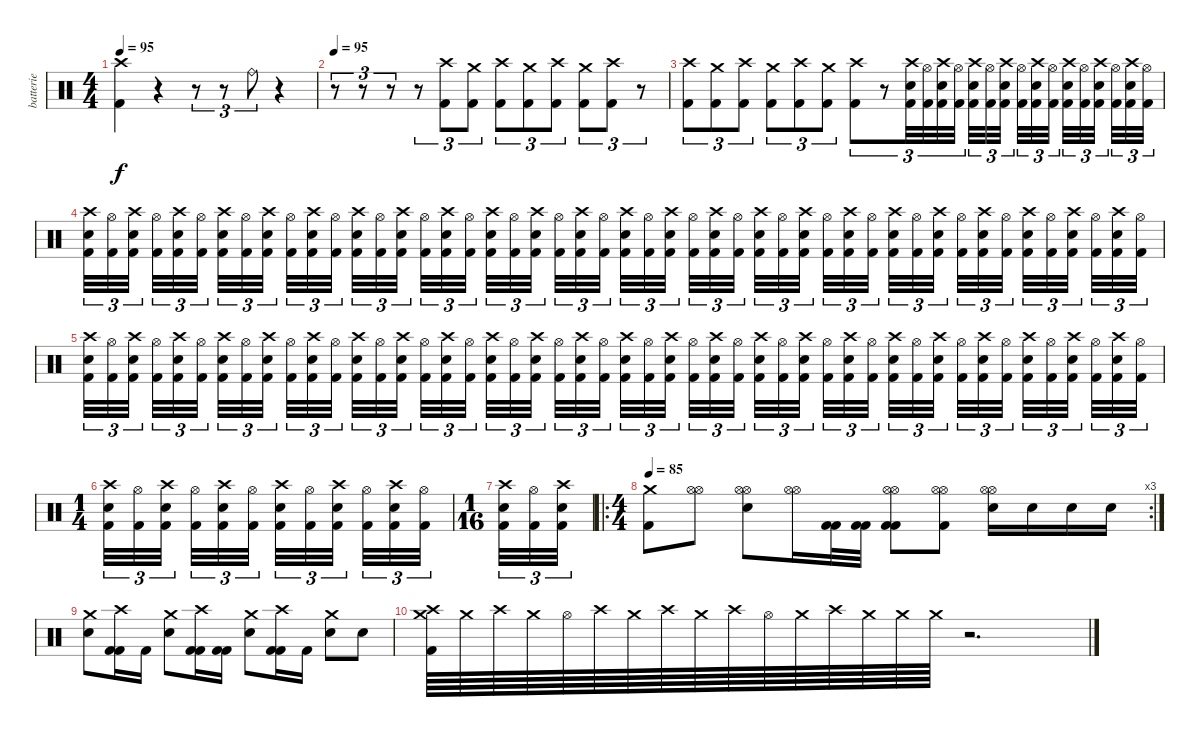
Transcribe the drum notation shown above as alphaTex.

\track ("batterie" "batterie") {instrument percussion}
\staff {score}
\articulation defaults
\ts (4 4)
\tempo 95
\clef neutral
\ks c
("Crash high (hit)" "Kick (hit) 2").4{dy f} r.4 r.8{tu (3 2)} r.8{tu (3 2)} "Ride (bell)".8{tu (3 2)} r.4 |
\tempo 95
r.8{tu (3 2)} r.8{tu (3 2)} r.8{tu (3 2)} r.8{tu (3 2)} ("Crash high (hit)" "Kick (hit) 2").8{tu (3 2)} ("Crash medium (hit)" "Kick (hit) 2").8{tu (3 2)} ("Crash high (hit)" "Kick (hit) 2").8{tu (3 2)} ("Crash medium (hit)" "Kick (hit) 2").8{tu (3 2)} ("Crash high (hit)" "Kick (hit) 2").8{tu (3 2)} ("Crash medium (hit)" "Kick (hit) 2").8{tu (3 2)} ("Crash high (hit)" "Kick (hit) 2").8{tu (3 2)} r.8{tu (3 2)} |
("Crash high (hit)" "Kick (hit) 2").8{tu (3 2)} ("Crash medium (hit)" "Kick (hit) 2").8{tu (3 2)} ("Crash high (hit)" "Kick (hit) 2").8{tu (3 2)} ("Crash medium (hit)" "Kick (hit) 2").8{tu (3 2)} ("Crash high (hit)" "Kick (hit) 2").8{tu (3 2)} ("Crash medium (hit)" "Kick (hit) 2").8{tu (3 2)} ("Crash high (hit)" "Kick (hit) 2").8{tu (3 2)} r.8{tu (3 2)} ("Crash high (hit)" "Electric Snare (hit)" "Kick (hit) 2").32{tu (3 2)} ("Hi-Hat (open)" "Kick (hit) 2").32{tu (3 2)} ("Crash high (hit)" "Electric Snare (hit)" "Kick (hit) 2").32{tu (3 2)} ("Hi-Hat (open)" "Kick (hit) 2").32{tu (3 2)} ("Crash high (hit)" "Electric Snare (hit)" "Kick (hit) 2").32{tu (3 2)} ("Hi-Hat (open)" "Kick (hit) 2").32{tu (3 2)} ("Crash high (hit)" "Electric Snare (hit)" "Kick (hit) 2").32{tu (3 2)} ("Hi-Hat (open)" "Kick (hit) 2").32{tu (3 2)} ("Crash high (hit)" "Electric Snare (hit)" "Kick (hit) 2").32{tu (3 2)} ("Hi-Hat (open)" "Kick (hit) 2").32{tu (3 2)} ("Crash high (hit)" "Electric Snare (hit)" "Kick (hit) 2").32{tu (3 2)} ("Hi-Hat (open)" "Kick (hit) 2").32{tu (3 2)} ("Crash high (hit)" "Electric Snare (hit)" "Kick (hit) 2").32{tu (3 2)} ("Hi-Hat (open)" "Kick (hit) 2").32{tu (3 2)} ("Crash high (hit)" "Electric Snare (hit)" "Kick (hit) 2").32{tu (3 2)} ("Hi-Hat (open)" "Kick (hit) 2").32{tu (3 2)} |
("Crash high (hit)" "Electric Snare (hit)" "Kick (hit) 2").32{tu (3 2)} ("Hi-Hat (open)" "Kick (hit) 2").32{tu (3 2)} ("Crash high (hit)" "Electric Snare (hit)" "Kick (hit) 2").32{tu (3 2)} ("Hi-Hat (open)" "Kick (hit) 2").32{tu (3 2)} ("Crash high (hit)" "Electric Snare (hit)" "Kick (hit) 2").32{tu (3 2)} ("Hi-Hat (open)" "Kick (hit) 2").32{tu (3 2)} ("Crash high (hit)" "Electric Snare (hit)" "Kick (hit) 2").32{tu (3 2)} ("Hi-Hat (open)" "Kick (hit) 2").32{tu (3 2)} ("Crash high (hit)" "Electric Snare (hit)" "Kick (hit) 2").32{tu (3 2)} ("Hi-Hat (open)" "Kick (hit) 2").32{tu (3 2)} ("Crash high (hit)" "Electric Snare (hit)" "Kick (hit) 2").32{tu (3 2)} ("Hi-Hat (open)" "Kick (hit) 2").32{tu (3 2)} ("Crash high (hit)" "Electric Snare (hit)" "Kick (hit) 2").32{tu (3 2)} ("Hi-Hat (open)" "Kick (hit) 2").32{tu (3 2)} ("Crash high (hit)" "Electric Snare (hit)" "Kick (hit) 2").32{tu (3 2)} ("Hi-Hat (open)" "Kick (hit) 2").32{tu (3 2)} ("Crash high (hit)" "Electric Snare (hit)" "Kick (hit) 2").32{tu (3 2)} ("Hi-Hat (open)" "Kick (hit) 2").32{tu (3 2)} ("Crash high (hit)" "Electric Snare (hit)" "Kick (hit) 2").32{tu (3 2)} ("Hi-Hat (open)" "Kick (hit) 2").32{tu (3 2)} ("Crash high (hit)" "Electric Snare (hit)" "Kick (hit) 2").32{tu (3 2)} ("Hi-Hat (open)" "Kick (hit) 2").32{tu (3 2)} ("Crash high (hit)" "Electric Snare (hit)" "Kick (hit) 2").32{tu (3 2)} ("Hi-Hat (open)" "Kick (hit) 2").32{tu (3 2)} ("Crash high (hit)" "Electric Snare (hit)" "Kick (hit) 2").32{tu (3 2)} ("Hi-Hat (open)" "Kick (hit) 2").32{tu (3 2)} ("Crash high (hit)" "Electric Snare (hit)" "Kick (hit) 2").32{tu (3 2)} ("Hi-Hat (open)" "Kick (hit) 2").32{tu (3 2)} ("Crash high (hit)" "Electric Snare (hit)" "Kick (hit) 2").32{tu (3 2)} ("Hi-Hat (open)" "Kick (hit) 2").32{tu (3 2)} ("Crash high (hit)" "Electric Snare (hit)" "Kick (hit) 2").32{tu (3 2)} ("Hi-Hat (open)" "Kick (hit) 2").32{tu (3 2)} ("Crash high (hit)" "Electric Snare (hit)" "Kick (hit) 2").32{tu (3 2)} ("Hi-Hat (open)" "Kick (hit) 2").32{tu (3 2)} ("Crash high (hit)" "Electric Snare (hit)" "Kick (hit) 2").32{tu (3 2)} ("Hi-Hat (open)" "Kick (hit) 2").32{tu (3 2)} ("Crash high (hit)" "Electric Snare (hit)" "Kick (hit) 2").32{tu (3 2)} ("Hi-Hat (open)" "Kick (hit) 2").32{tu (3 2)} ("Crash high (hit)" "Electric Snare (hit)" "Kick (hit) 2").32{tu (3 2)} ("Hi-Hat (open)" "Kick (hit) 2").32{tu (3 2)} ("Crash high (hit)" "Electric Snare (hit)" "Kick (hit) 2").32{tu (3 2)} ("Hi-Hat (open)" "Kick (hit) 2").32{tu (3 2)} ("Crash high (hit)" "Electric Snare (hit)" "Kick (hit) 2").32{tu (3 2)} ("Hi-Hat (open)" "Kick (hit) 2").32{tu (3 2)} ("Crash high (hit)" "Electric Snare (hit)" "Kick (hit) 2").32{tu (3 2)} ("Hi-Hat (open)" "Kick (hit) 2").32{tu (3 2)} ("Crash high (hit)" "Electric Snare (hit)" "Kick (hit) 2").32{tu (3 2)} ("Hi-Hat (open)" "Kick (hit) 2").32{tu (3 2)} |
("Crash high (hit)" "Electric Snare (hit)" "Kick (hit) 2").32{tu (3 2)} ("Hi-Hat (open)" "Kick (hit) 2").32{tu (3 2)} ("Crash high (hit)" "Electric Snare (hit)" "Kick (hit) 2").32{tu (3 2)} ("Hi-Hat (open)" "Kick (hit) 2").32{tu (3 2)} ("Crash high (hit)" "Electric Snare (hit)" "Kick (hit) 2").32{tu (3 2)} ("Hi-Hat (open)" "Kick (hit) 2").32{tu (3 2)} ("Crash high (hit)" "Electric Snare (hit)" "Kick (hit) 2").32{tu (3 2)} ("Hi-Hat (open)" "Kick (hit) 2").32{tu (3 2)} ("Crash high (hit)" "Electric Snare (hit)" "Kick (hit) 2").32{tu (3 2)} ("Hi-Hat (open)" "Kick (hit) 2").32{tu (3 2)} ("Crash high (hit)" "Electric Snare (hit)" "Kick (hit) 2").32{tu (3 2)} ("Hi-Hat (open)" "Kick (hit) 2").32{tu (3 2)} ("Crash high (hit)" "Electric Snare (hit)" "Kick (hit) 2").32{tu (3 2)} ("Hi-Hat (open)" "Kick (hit) 2").32{tu (3 2)} ("Crash high (hit)" "Electric Snare (hit)" "Kick (hit) 2").32{tu (3 2)} ("Hi-Hat (open)" "Kick (hit) 2").32{tu (3 2)} ("Crash high (hit)" "Electric Snare (hit)" "Kick (hit) 2").32{tu (3 2)} ("Hi-Hat (open)" "Kick (hit) 2").32{tu (3 2)} ("Crash high (hit)" "Electric Snare (hit)" "Kick (hit) 2").32{tu (3 2)} ("Hi-Hat (open)" "Kick (hit) 2").32{tu (3 2)} ("Crash high (hit)" "Electric Snare (hit)" "Kick (hit) 2").32{tu (3 2)} ("Hi-Hat (open)" "Kick (hit) 2").32{tu (3 2)} ("Crash high (hit)" "Electric Snare (hit)" "Kick (hit) 2").32{tu (3 2)} ("Hi-Hat (open)" "Kick (hit) 2").32{tu (3 2)} ("Crash high (hit)" "Electric Snare (hit)" "Kick (hit) 2").32{tu (3 2)} ("Hi-Hat (open)" "Kick (hit) 2").32{tu (3 2)} ("Crash high (hit)" "Electric Snare (hit)" "Kick (hit) 2").32{tu (3 2)} ("Hi-Hat (open)" "Kick (hit) 2").32{tu (3 2)} ("Crash high (hit)" "Electric Snare (hit)" "Kick (hit) 2").32{tu (3 2)} ("Hi-Hat (open)" "Kick (hit) 2").32{tu (3 2)} ("Crash high (hit)" "Electric Snare (hit)" "Kick (hit) 2").32{tu (3 2)} ("Hi-Hat (open)" "Kick (hit) 2").32{tu (3 2)} ("Crash high (hit)" "Electric Snare (hit)" "Kick (hit) 2").32{tu (3 2)} ("Hi-Hat (open)" "Kick (hit) 2").32{tu (3 2)} ("Crash high (hit)" "Electric Snare (hit)" "Kick (hit) 2").32{tu (3 2)} ("Hi-Hat (open)" "Kick (hit) 2").32{tu (3 2)} ("Crash high (hit)" "Electric Snare (hit)" "Kick (hit) 2").32{tu (3 2)} ("Hi-Hat (open)" "Kick (hit) 2").32{tu (3 2)} ("Crash high (hit)" "Electric Snare (hit)" "Kick (hit) 2").32{tu (3 2)} ("Hi-Hat (open)" "Kick (hit) 2").32{tu (3 2)} ("Crash high (hit)" "Electric Snare (hit)" "Kick (hit) 2").32{tu (3 2)} ("Hi-Hat (open)" "Kick (hit) 2").32{tu (3 2)} ("Crash high (hit)" "Electric Snare (hit)" "Kick (hit) 2").32{tu (3 2)} ("Hi-Hat (open)" "Kick (hit) 2").32{tu (3 2)} ("Crash high (hit)" "Electric Snare (hit)" "Kick (hit) 2").32{tu (3 2)} ("Hi-Hat (open)" "Kick (hit) 2").32{tu (3 2)} ("Crash high (hit)" "Electric Snare (hit)" "Kick (hit) 2").32{tu (3 2)} ("Hi-Hat (open)" "Kick (hit) 2").32{tu (3 2)} |
\ts (1 4)
("Crash high (hit)" "Electric Snare (hit)" "Kick (hit) 2").32{tu (3 2)} ("Hi-Hat (open)" "Kick (hit) 2").32{tu (3 2)} ("Crash high (hit)" "Electric Snare (hit)" "Kick (hit) 2").32{tu (3 2)} ("Hi-Hat (open)" "Kick (hit) 2").32{tu (3 2)} ("Crash high (hit)" "Electric Snare (hit)" "Kick (hit) 2").32{tu (3 2)} ("Hi-Hat (open)" "Kick (hit) 2").32{tu (3 2)} ("Crash high (hit)" "Electric Snare (hit)" "Kick (hit) 2").32{tu (3 2)} ("Hi-Hat (open)" "Kick (hit) 2").32{tu (3 2)} ("Crash high (hit)" "Electric Snare (hit)" "Kick (hit) 2").32{tu (3 2)} ("Hi-Hat (open)" "Kick (hit) 2").32{tu (3 2)} ("Crash high (hit)" "Electric Snare (hit)" "Kick (hit) 2").32{tu (3 2)} ("Hi-Hat (open)" "Kick (hit) 2").32{tu (3 2)} |
\ts (1 16)
("Crash high (hit)" "Electric Snare (hit)" "Kick (hit) 2").32{tu (3 2)} ("Hi-Hat (open)" "Kick (hit) 2").32{tu (3 2)} ("Crash high (hit)" "Electric Snare (hit)" "Kick (hit) 2").32{tu (3 2)} |
\ro
\rc 3
\ts (4 4)
\tempo 85
("Crash medium (hit)" "Kick (hit) 2").8 ("Hi-Hat (open)" "Hi-Hat (open)").8 ("Hi-Hat (open)" "Hi-Hat (open)" "Electric Snare (hit)").8 ("Hi-Hat (open)" "Hi-Hat (open)").16 ("Kick (hit) 2" "Kick (hit) 2").32 ("Kick (hit) 2" "Kick (hit) 2").32 ("Hi-Hat (open)" "Hi-Hat (open)" "Kick (hit) 2" "Kick (hit) 2").8 ("Hi-Hat (open)" "Hi-Hat (open)" "Kick (hit) 2").8 ("Hi-Hat (open)" "Hi-Hat (open)" "Electric Snare (hit)").16 "Electric Snare (hit)".16 "Electric Snare (hit)".16 "Electric Snare (hit)".16 |
("Crash medium (hit)" "Electric Snare (hit)").8 ("Crash high (hit)" "Kick (hit) 2" "Kick (hit) 2").16 "Kick (hit) 2".16 ("Crash medium (hit)" "Electric Snare (hit)").8 ("Crash high (hit)" "Kick (hit) 2" "Kick (hit) 2").16 ("Kick (hit) 2" "Kick (hit) 2").16 ("Crash medium (hit)" "Electric Snare (hit)").8 ("Crash high (hit)" "Kick (hit) 2" "Kick (hit) 2").16 "Kick (hit) 2".16 ("Crash medium (hit)" "Electric Snare (hit)").8 "Electric Snare (hit)".8 |
("Crash high (hit)" "Crash medium (hit)" "Kick (hit) 2").64 "Crash medium (hit)".64 "Crash high (hit)".64 "Crash medium (hit)".64 "Hi-Hat (open)".64 "Crash high (hit)".64 "Crash medium (hit)".64 "Crash high (hit)".64 "Crash medium (hit)".64 "Crash high (hit)".64 "Hi-Hat (open)".64 "Crash medium (hit)".64 "Crash high (hit)".64 "Crash medium (hit)".64 "Crash medium (hit)".64 "Crash medium (hit)".64 r.2{d}
